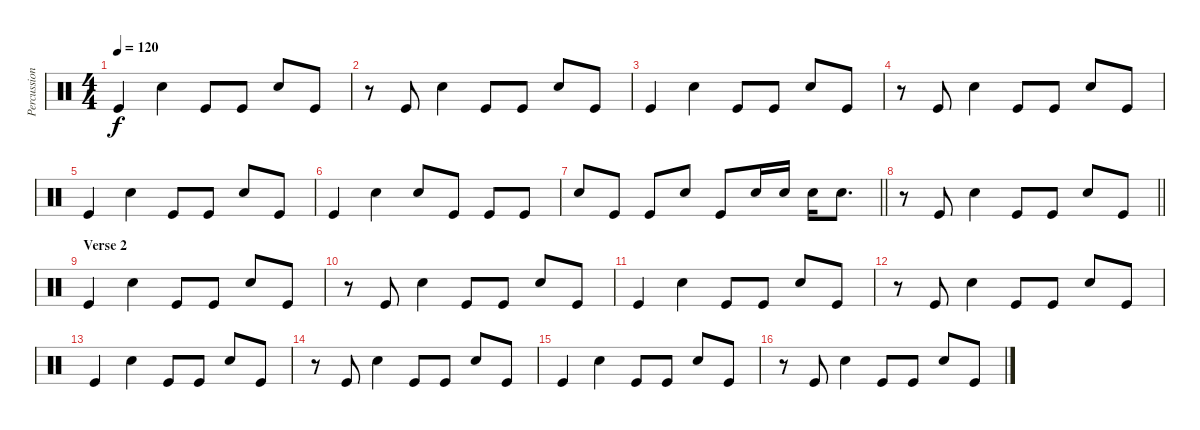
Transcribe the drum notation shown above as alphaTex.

\track ("Percussion" "Percussion") {instrument percussion}
\staff {score}
\articulation defaults
\ts (4 4)
\tempo 120
\clef neutral
\ks c "Kick (hit)".4{dy f} "Snare (hit) 2".4 "Kick (hit)".8 "Kick (hit)".8 "Snare (hit) 2".8 "Kick (hit)".8
|
r.8 "Kick (hit)".8 "Snare (hit) 2".4 "Kick (hit)".8 "Kick (hit)".8 "Snare (hit) 2".8 "Kick (hit)".8 |
"Kick (hit)".4 "Snare (hit) 2".4 "Kick (hit)".8 "Kick (hit)".8 "Snare (hit) 2".8 "Kick (hit)".8 |
r.8 "Kick (hit)".8 "Snare (hit) 2".4 "Kick (hit)".8 "Kick (hit)".8 "Snare (hit) 2".8 "Kick (hit)".8 |
"Kick (hit)".4 "Snare (hit) 2".4 "Kick (hit)".8 "Kick (hit)".8 "Snare (hit) 2".8 "Kick (hit)".8 |
"Kick (hit)".4 "Snare (hit) 2".4 "Snare (hit) 2".8 "Kick (hit)".8 "Kick (hit)".8 "Kick (hit)".8 |
\barLineRight lightlight "Snare (hit) 2".8 "Kick (hit)".8 "Kick (hit)".8 "Snare (hit) 2".8 "Kick (hit)".8 "Snare (hit) 2".16 "Snare (hit) 2".16 "Snare (hit) 2".16 "Snare (hit) 2".8{d}
|
\barLineRight lightlight
r.8 "Kick (hit)".8 "Snare (hit) 2".4 "Kick (hit)".8 "Kick (hit)".8 "Snare (hit) 2".8 "Kick (hit)".8 |
\section ("" "Verse 2")
"Kick (hit)".4 "Snare (hit) 2".4 "Kick (hit)".8 "Kick (hit)".8 "Snare (hit) 2".8 "Kick (hit)".8 |
r.8 "Kick (hit)".8 "Snare (hit) 2".4 "Kick (hit)".8 "Kick (hit)".8 "Snare (hit) 2".8 "Kick (hit)".8 |
"Kick (hit)".4 "Snare (hit) 2".4 "Kick (hit)".8 "Kick (hit)".8 "Snare (hit) 2".8 "Kick (hit)".8 |
r.8 "Kick (hit)".8 "Snare (hit) 2".4 "Kick (hit)".8 "Kick (hit)".8 "Snare (hit) 2".8 "Kick (hit)".8 |
"Kick (hit)".4 "Snare (hit) 2".4 "Kick (hit)".8 "Kick (hit)".8 "Snare (hit) 2".8 "Kick (hit)".8 |
r.8 "Kick (hit)".8 "Snare (hit) 2".4 "Kick (hit)".8 "Kick (hit)".8 "Snare (hit) 2".8 "Kick (hit)".8 |
"Kick (hit)".4 "Snare (hit) 2".4 "Kick (hit)".8 "Kick (hit)".8 "Snare (hit) 2".8 "Kick (hit)".8 |
r.8 "Kick (hit)".8 "Snare (hit) 2".4 "Kick (hit)".8 "Kick (hit)".8 "Snare (hit) 2".8 "Kick (hit)".8
